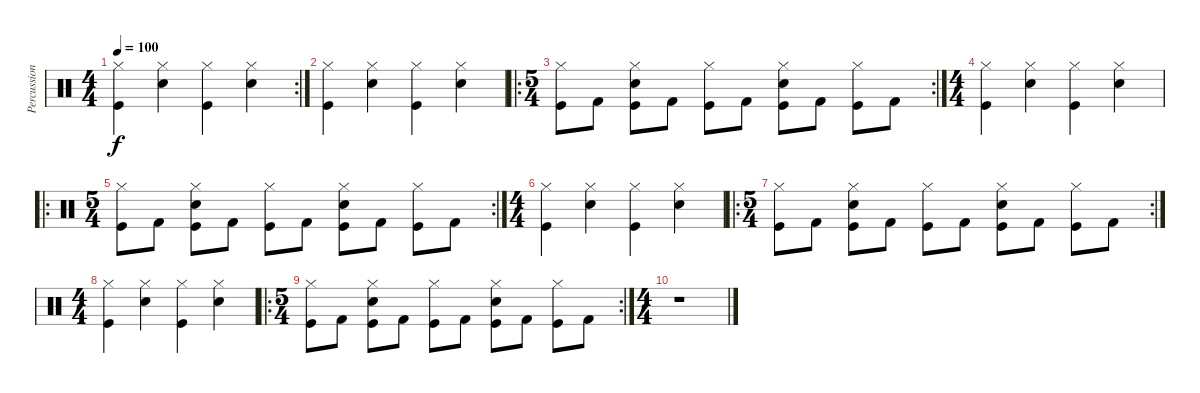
\track ("Percussion" "Percussion") {instrument percussion}
\staff {score}
\articulation defaults
\rc 2
\ts (4 4)
\tempo 100
\clef neutral
\ks c
("Hi-Hat (closed)" "Kick (hit)").4{dy f} ("Hi-Hat (closed)" "Electric Snare (hit)").4 ("Hi-Hat (closed)" "Kick (hit)").4 ("Hi-Hat (closed)" "Electric Snare (hit)").4 |
("Hi-Hat (closed)" "Kick (hit)").4 ("Hi-Hat (closed)" "Electric Snare (hit)").4 ("Hi-Hat (closed)" "Kick (hit)").4 ("Hi-Hat (closed)" "Electric Snare (hit)").4 |
\ro
\rc 2
\ts (5 4)
("Hi-Hat (closed)" "Kick (hit)").8 "Kick (hit) 2".8 ("Hi-Hat (closed)" "Electric Snare (hit)" "Kick (hit)").8 "Kick (hit) 2".8 ("Hi-Hat (closed)" "Kick (hit)").8 "Kick (hit) 2".8 ("Hi-Hat (closed)" "Electric Snare (hit)" "Kick (hit)").8 "Kick (hit) 2".8 ("Hi-Hat (closed)" "Kick (hit)").8 "Kick (hit) 2".8 |
\ts (4 4)
("Hi-Hat (closed)" "Kick (hit)").4 ("Hi-Hat (closed)" "Electric Snare (hit)").4 ("Hi-Hat (closed)" "Kick (hit)").4 ("Hi-Hat (closed)" "Electric Snare (hit)").4 |
\ro
\rc 2
\ts (5 4)
("Hi-Hat (closed)" "Kick (hit)").8 "Kick (hit) 2".8 ("Hi-Hat (closed)" "Electric Snare (hit)" "Kick (hit)").8 "Kick (hit) 2".8 ("Hi-Hat (closed)" "Kick (hit)").8 "Kick (hit) 2".8 ("Hi-Hat (closed)" "Electric Snare (hit)" "Kick (hit)").8 "Kick (hit) 2".8 ("Hi-Hat (closed)" "Kick (hit)").8 "Kick (hit) 2".8 |
\ts (4 4)
("Hi-Hat (closed)" "Kick (hit)").4 ("Hi-Hat (closed)" "Electric Snare (hit)").4 ("Hi-Hat (closed)" "Kick (hit)").4 ("Hi-Hat (closed)" "Electric Snare (hit)").4 |
\ro
\rc 2
\ts (5 4)
("Hi-Hat (closed)" "Kick (hit)").8 "Kick (hit) 2".8 ("Hi-Hat (closed)" "Electric Snare (hit)" "Kick (hit)").8 "Kick (hit) 2".8 ("Hi-Hat (closed)" "Kick (hit)").8 "Kick (hit) 2".8 ("Hi-Hat (closed)" "Electric Snare (hit)" "Kick (hit)").8 "Kick (hit) 2".8 ("Hi-Hat (closed)" "Kick (hit)").8 "Kick (hit) 2".8 |
\ts (4 4)
("Hi-Hat (closed)" "Kick (hit)").4 ("Hi-Hat (closed)" "Electric Snare (hit)").4 ("Hi-Hat (closed)" "Kick (hit)").4 ("Hi-Hat (closed)" "Electric Snare (hit)").4 |
\ro
\rc 2
\ts (5 4)
("Hi-Hat (closed)" "Kick (hit)").8 "Kick (hit) 2".8 ("Hi-Hat (closed)" "Electric Snare (hit)" "Kick (hit)").8 "Kick (hit) 2".8 ("Hi-Hat (closed)" "Kick (hit)").8 "Kick (hit) 2".8 ("Hi-Hat (closed)" "Electric Snare (hit)" "Kick (hit)").8 "Kick (hit) 2".8 ("Hi-Hat (closed)" "Kick (hit)").8 "Kick (hit) 2".8 |
\ts (4 4)
r.1
